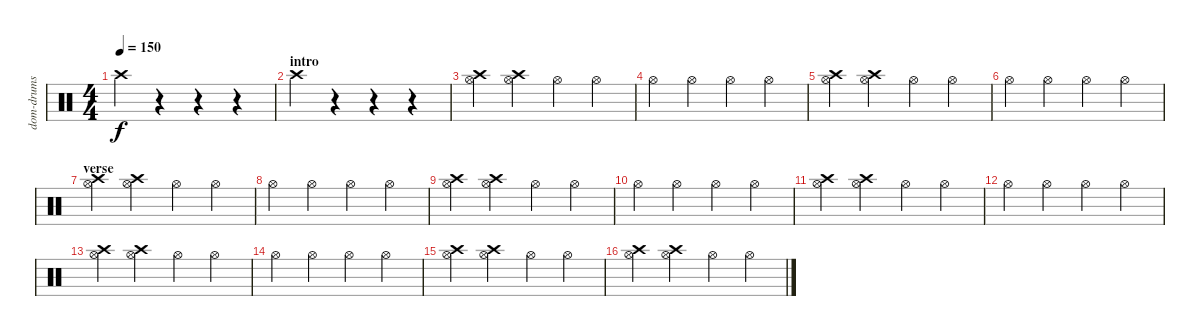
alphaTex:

\track ("dom-drums" "dom-drums") {instrument percussion}
\staff {score}
\articulation defaults
\ts (4 4)
\tempo 150
\clef neutral
\ks c "Crash high (hit)".4{dy f}
r.4 r.4 r.4 |
\section ("" "intro")
"Crash high (hit)".4 r.4 r.4 r.4 |
("Crash high (hit)" "Hi-Hat (open)").4 ("Crash high (hit)" "Hi-Hat (open)").4 "Hi-Hat (open)".4 "Hi-Hat (open)".4 |
"Hi-Hat (open)".4 "Hi-Hat (open)".4 "Hi-Hat (open)".4 "Hi-Hat (open)".4 |
("Crash high (hit)" "Hi-Hat (open)").4 ("Crash high (hit)" "Hi-Hat (open)").4 "Hi-Hat (open)".4 "Hi-Hat (open)".4 |
"Hi-Hat (open)".4 "Hi-Hat (open)".4 "Hi-Hat (open)".4 "Hi-Hat (open)".4 |
\section ("" "verse")
("Crash high (hit)" "Hi-Hat (open)").4 ("Crash high (hit)" "Hi-Hat (open)").4 "Hi-Hat (open)".4 "Hi-Hat (open)".4 |
"Hi-Hat (open)".4 "Hi-Hat (open)".4 "Hi-Hat (open)".4 "Hi-Hat (open)".4 |
("Crash high (hit)" "Hi-Hat (open)").4 ("Crash high (hit)" "Hi-Hat (open)").4 "Hi-Hat (open)".4 "Hi-Hat (open)".4 |
"Hi-Hat (open)".4 "Hi-Hat (open)".4 "Hi-Hat (open)".4 "Hi-Hat (open)".4 |
("Crash high (hit)" "Hi-Hat (open)").4 ("Crash high (hit)" "Hi-Hat (open)").4 "Hi-Hat (open)".4 "Hi-Hat (open)".4 |
"Hi-Hat (open)".4 "Hi-Hat (open)".4 "Hi-Hat (open)".4 "Hi-Hat (open)".4 |
("Crash high (hit)" "Hi-Hat (open)").4 ("Crash high (hit)" "Hi-Hat (open)").4 "Hi-Hat (open)".4 "Hi-Hat (open)".4 |
"Hi-Hat (open)".4 "Hi-Hat (open)".4 "Hi-Hat (open)".4 "Hi-Hat (open)".4 |
("Crash high (hit)" "Hi-Hat (open)").4 ("Crash high (hit)" "Hi-Hat (open)").4 "Hi-Hat (open)".4 "Hi-Hat (open)".4 |
("Crash high (hit)" "Hi-Hat (open)").4 ("Crash high (hit)" "Hi-Hat (open)").4 "Hi-Hat (open)".4 "Hi-Hat (open)".4
